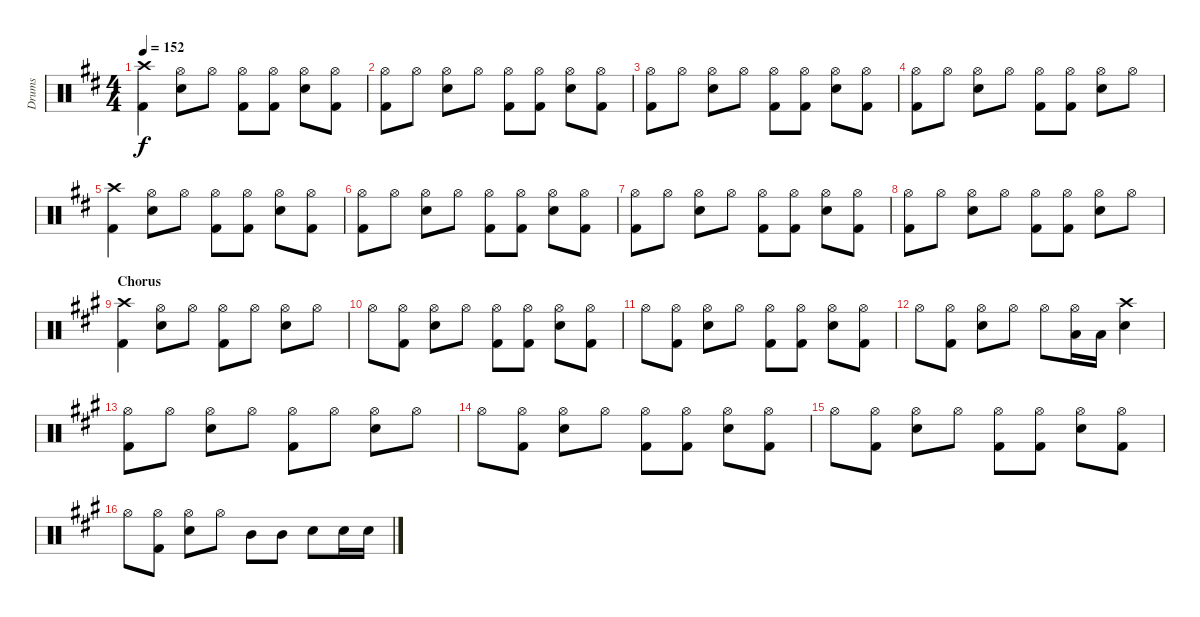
\track ("Drums" "Drums") {instrument percussion}
\staff {score}
\articulation defaults
\ts (4 4)
\tempo 152
\clef neutral
\ks bminor
("Kick (hit) 2" "Crash high (hit)").4{dy f} ("Snare (hit) 2" "Hi-Hat (open)").8 "Hi-Hat (open)".8 ("Kick (hit) 2" "Hi-Hat (open)").8 ("Kick (hit) 2" "Hi-Hat (open)").8 ("Snare (hit) 2" "Hi-Hat (open)").8 ("Kick (hit) 2" "Hi-Hat (open)").8 |
("Kick (hit) 2" "Hi-Hat (open)").8 "Hi-Hat (open)".8 ("Snare (hit) 2" "Hi-Hat (open)").8 "Hi-Hat (open)".8 ("Kick (hit) 2" "Hi-Hat (open)").8 ("Kick (hit) 2" "Hi-Hat (open)").8 ("Snare (hit) 2" "Hi-Hat (open)").8 ("Kick (hit) 2" "Hi-Hat (open)").8 |
("Kick (hit) 2" "Hi-Hat (open)").8 "Hi-Hat (open)".8 ("Snare (hit) 2" "Hi-Hat (open)").8 "Hi-Hat (open)".8 ("Kick (hit) 2" "Hi-Hat (open)").8 ("Kick (hit) 2" "Hi-Hat (open)").8 ("Snare (hit) 2" "Hi-Hat (open)").8 ("Kick (hit) 2" "Hi-Hat (open)").8 |
("Kick (hit) 2" "Hi-Hat (open)").8 "Hi-Hat (open)".8 ("Snare (hit) 2" "Hi-Hat (open)").8 "Hi-Hat (open)".8 ("Kick (hit) 2" "Hi-Hat (open)").8 ("Kick (hit) 2" "Hi-Hat (open)").8 ("Snare (hit) 2" "Hi-Hat (open)").8 "Hi-Hat (open)".8 |
("Kick (hit) 2" "Crash high (hit)").4 ("Snare (hit) 2" "Hi-Hat (open)").8 "Hi-Hat (open)".8 ("Kick (hit) 2" "Hi-Hat (open)").8 ("Kick (hit) 2" "Hi-Hat (open)").8 ("Snare (hit) 2" "Hi-Hat (open)").8 ("Kick (hit) 2" "Hi-Hat (open)").8 |
("Kick (hit) 2" "Hi-Hat (open)").8 "Hi-Hat (open)".8 ("Snare (hit) 2" "Hi-Hat (open)").8 "Hi-Hat (open)".8 ("Kick (hit) 2" "Hi-Hat (open)").8 ("Kick (hit) 2" "Hi-Hat (open)").8 ("Snare (hit) 2" "Hi-Hat (open)").8 ("Kick (hit) 2" "Hi-Hat (open)").8 |
("Kick (hit) 2" "Hi-Hat (open)").8 "Hi-Hat (open)".8 ("Snare (hit) 2" "Hi-Hat (open)").8 "Hi-Hat (open)".8 ("Kick (hit) 2" "Hi-Hat (open)").8 ("Kick (hit) 2" "Hi-Hat (open)").8 ("Snare (hit) 2" "Hi-Hat (open)").8 ("Kick (hit) 2" "Hi-Hat (open)").8 |
("Kick (hit) 2" "Hi-Hat (open)").8 "Hi-Hat (open)".8 ("Snare (hit) 2" "Hi-Hat (open)").8 "Hi-Hat (open)".8 ("Kick (hit) 2" "Hi-Hat (open)").8 ("Kick (hit) 2" "Hi-Hat (open)").8 ("Snare (hit) 2" "Hi-Hat (open)").8 "Hi-Hat (open)".8 |
\section ("" "Chorus")
\ks f#minor
("Kick (hit) 2" "Crash high (hit)").4 ("Snare (hit) 2" "Hi-Hat (open)").8 "Hi-Hat (open)".8 ("Kick (hit) 2" "Hi-Hat (open)").8 "Hi-Hat (open)".8 ("Snare (hit) 2" "Hi-Hat (open)").8 "Hi-Hat (open)".8 |
"Hi-Hat (open)".8 ("Kick (hit) 2" "Hi-Hat (open)").8 ("Snare (hit) 2" "Hi-Hat (open)").8 "Hi-Hat (open)".8 ("Kick (hit) 2" "Hi-Hat (open)").8 ("Kick (hit) 2" "Hi-Hat (open)").8 ("Snare (hit) 2" "Hi-Hat (open)").8 ("Kick (hit) 2" "Hi-Hat (open)").8 |
"Hi-Hat (open)".8 ("Kick (hit) 2" "Hi-Hat (open)").8 ("Snare (hit) 2" "Hi-Hat (open)").8 "Hi-Hat (open)".8 ("Kick (hit) 2" "Hi-Hat (open)").8 ("Kick (hit) 2" "Hi-Hat (open)").8 ("Snare (hit) 2" "Hi-Hat (open)").8 ("Kick (hit) 2" "Hi-Hat (open)").8 |
"Hi-Hat (open)".8 ("Kick (hit) 2" "Hi-Hat (open)").8 ("Snare (hit) 2" "Hi-Hat (open)").8 "Hi-Hat (open)".8 "Hi-Hat (open)".8 ("Hi-Hat (open)" "Low Tom (hit)").16 "Low Tom (hit)".16 ("Snare (hit) 2" "Crash high (hit)").4 |
("Kick (hit) 2" "Hi-Hat (open)").8 "Hi-Hat (open)".8 ("Snare (hit) 2" "Hi-Hat (open)").8 "Hi-Hat (open)".8 ("Kick (hit) 2" "Hi-Hat (open)").8 "Hi-Hat (open)".8 ("Snare (hit) 2" "Hi-Hat (open)").8 "Hi-Hat (open)".8 |
"Hi-Hat (open)".8 ("Kick (hit) 2" "Hi-Hat (open)").8 ("Snare (hit) 2" "Hi-Hat (open)").8 "Hi-Hat (open)".8 ("Kick (hit) 2" "Hi-Hat (open)").8 ("Kick (hit) 2" "Hi-Hat (open)").8 ("Snare (hit) 2" "Hi-Hat (open)").8 ("Kick (hit) 2" "Hi-Hat (open)").8 |
"Hi-Hat (open)".8 ("Kick (hit) 2" "Hi-Hat (open)").8 ("Snare (hit) 2" "Hi-Hat (open)").8 "Hi-Hat (open)".8 ("Kick (hit) 2" "Hi-Hat (open)").8 ("Kick (hit) 2" "Hi-Hat (open)").8 ("Snare (hit) 2" "Hi-Hat (open)").8 ("Kick (hit) 2" "Hi-Hat (open)").8 |
"Hi-Hat (open)".8 ("Kick (hit) 2" "Hi-Hat (open)").8 ("Snare (hit) 2" "Hi-Hat (open)").8 "Hi-Hat (open)".8 "Mid Tom (hit)".8 "Mid Tom (hit)".8 "Snare (hit) 2".8 "Snare (hit) 2".16 "Snare (hit) 2".16
